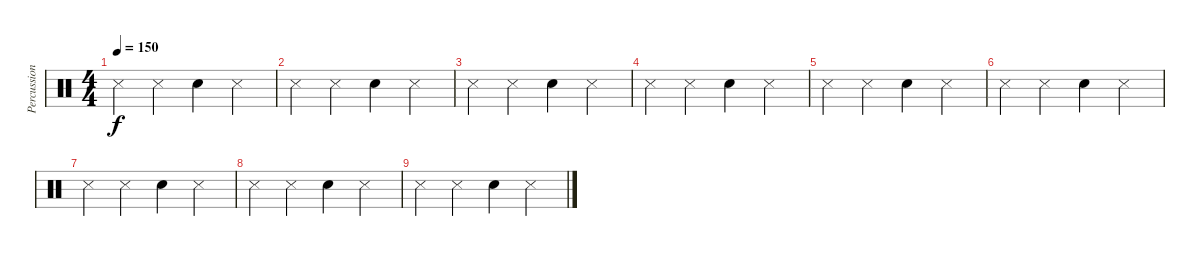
\track ("Percussion" "Percussion") {instrument percussion}
\staff {score}
\articulation defaults
\ts (4 4)
\tempo 150
\clef neutral
\ks c "Metronome (hit)".4{dy f} "Metronome (hit)".4 "Metronome (bell)".4 "Metronome (hit)".4
|
"Metronome (hit)".4 "Metronome (hit)".4 "Metronome (bell)".4 "Metronome (hit)".4 |
"Metronome (hit)".4 "Metronome (hit)".4 "Metronome (bell)".4 "Metronome (hit)".4 |
"Metronome (hit)".4 "Metronome (hit)".4 "Metronome (bell)".4 "Metronome (hit)".4 |
"Metronome (hit)".4 "Metronome (hit)".4 "Metronome (bell)".4 "Metronome (hit)".4 |
"Metronome (hit)".4 "Metronome (hit)".4 "Metronome (bell)".4 "Metronome (hit)".4 |
"Metronome (hit)".4 "Metronome (hit)".4 "Metronome (bell)".4 "Metronome (hit)".4 |
"Metronome (hit)".4 "Metronome (hit)".4 "Metronome (bell)".4 "Metronome (hit)".4 |
"Metronome (hit)".4 "Metronome (hit)".4 "Metronome (bell)".4 "Metronome (hit)".4
